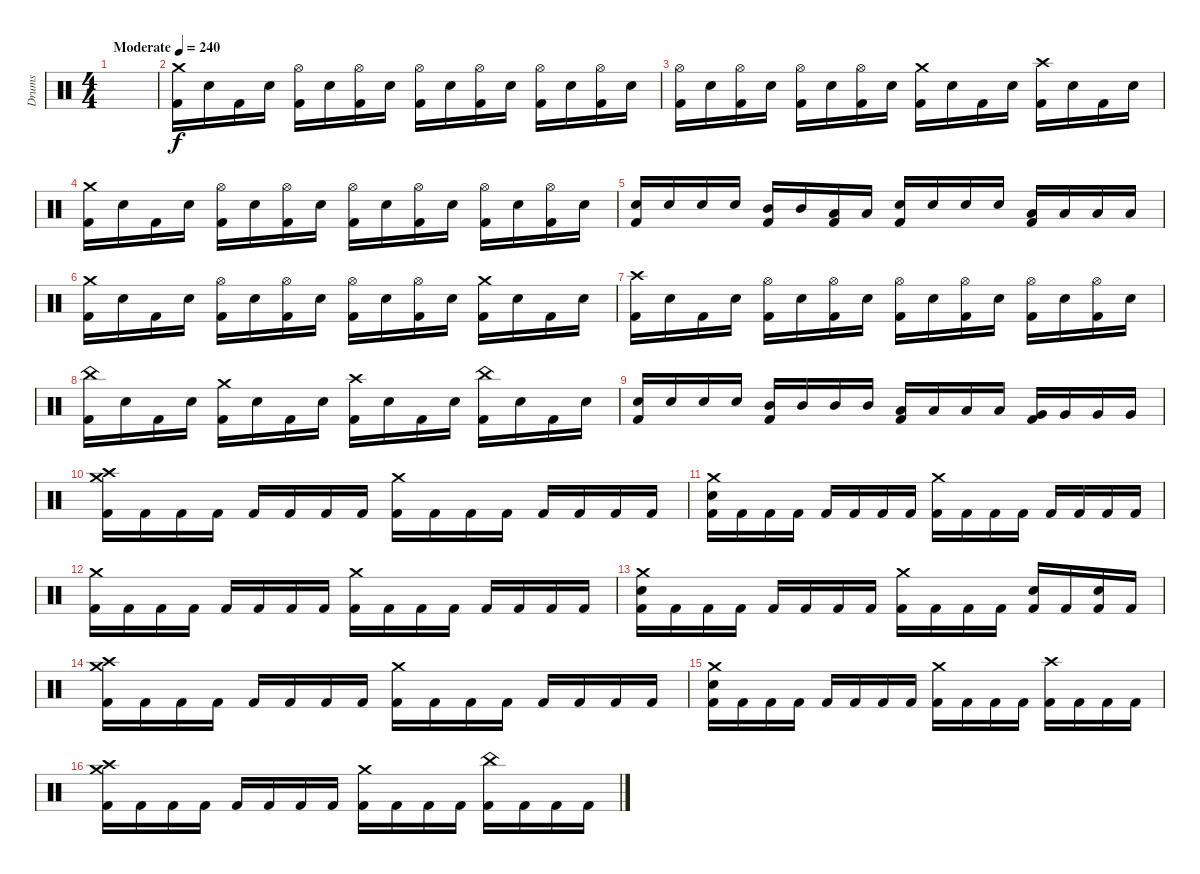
\track ("Drums" "Drums") {instrument percussion}
\staff {score}
\articulation defaults
\ts (4 4)
\tempo (240 "Moderate")
\clef neutral
\ks c
|
("Crash medium (hit)" "Kick (hit) 2").16 "Electric Snare (hit)".16 "Kick (hit) 2".16 "Electric Snare (hit)".16 ("Hi-Hat (open)" "Kick (hit) 2").16 "Electric Snare (hit)".16 ("Hi-Hat (open)" "Kick (hit) 2").16 "Electric Snare (hit)".16 ("Hi-Hat (open)" "Kick (hit) 2").16 "Electric Snare (hit)".16 ("Hi-Hat (open)" "Kick (hit) 2").16 "Electric Snare (hit)".16 ("Hi-Hat (open)" "Kick (hit) 2").16 "Electric Snare (hit)".16 ("Hi-Hat (open)" "Kick (hit) 2").16 "Electric Snare (hit)".16 |
("Hi-Hat (open)" "Kick (hit) 2").16 "Electric Snare (hit)".16 ("Hi-Hat (open)" "Kick (hit) 2").16 "Electric Snare (hit)".16 ("Hi-Hat (open)" "Kick (hit) 2").16 "Electric Snare (hit)".16 ("Hi-Hat (open)" "Kick (hit) 2").16 "Electric Snare (hit)".16 ("Crash medium (hit)" "Kick (hit) 2").16 "Electric Snare (hit)".16 "Kick (hit) 2".16 "Electric Snare (hit)".16 ("Crash high (hit)" "Kick (hit) 2").16 "Electric Snare (hit)".16 "Kick (hit) 2".16 "Electric Snare (hit)".16 |
("Crash medium (hit)" "Kick (hit) 2").16 "Electric Snare (hit)".16 "Kick (hit) 2".16 "Electric Snare (hit)".16 ("Hi-Hat (open)" "Kick (hit) 2").16 "Electric Snare (hit)".16 ("Hi-Hat (open)" "Kick (hit) 2").16 "Electric Snare (hit)".16 ("Hi-Hat (open)" "Kick (hit) 2").16 "Electric Snare (hit)".16 ("Hi-Hat (open)" "Kick (hit) 2").16 "Electric Snare (hit)".16 ("Hi-Hat (open)" "Kick (hit) 2").16 "Electric Snare (hit)".16 ("Hi-Hat (open)" "Kick (hit) 2").16 "Electric Snare (hit)".16 |
("Electric Snare (hit)" "Kick (hit) 2").16 "Electric Snare (hit)".16 "Electric Snare (hit)".16 "Electric Snare (hit)".16 ("Mid Tom (hit)" "Kick (hit) 2").16 "Mid Tom (hit)".16 ("Low Tom (hit)" "Kick (hit) 2").16 "Low Tom (hit)".16 ("Electric Snare (hit)" "Kick (hit) 2").16 "Electric Snare (hit)".16 "Electric Snare (hit)".16 "Electric Snare (hit)".16 ("Low Tom (hit)" "Kick (hit) 2").16 "Low Tom (hit)".16 "Low Tom (hit)".16 "Low Tom (hit)".16 |
("Crash medium (hit)" "Kick (hit) 2").16 "Electric Snare (hit)".16 "Kick (hit) 2".16 "Electric Snare (hit)".16 ("Hi-Hat (open)" "Kick (hit) 2").16 "Electric Snare (hit)".16 ("Hi-Hat (open)" "Kick (hit) 2").16 "Electric Snare (hit)".16 ("Hi-Hat (open)" "Kick (hit) 2").16 "Electric Snare (hit)".16 ("Hi-Hat (open)" "Kick (hit) 2").16 "Electric Snare (hit)".16 ("Crash medium (hit)" "Kick (hit) 2").16 "Electric Snare (hit)".16 "Kick (hit) 2".16 "Electric Snare (hit)".16 |
("Crash high (hit)" "Kick (hit) 2").16 "Electric Snare (hit)".16 "Kick (hit) 2".16 "Electric Snare (hit)".16 ("Hi-Hat (open)" "Kick (hit) 2").16 "Electric Snare (hit)".16 ("Hi-Hat (open)" "Kick (hit) 2").16 "Electric Snare (hit)".16 ("Hi-Hat (open)" "Kick (hit) 2").16 "Electric Snare (hit)".16 ("Hi-Hat (open)" "Kick (hit) 2").16 "Electric Snare (hit)".16 ("Hi-Hat (open)" "Kick (hit) 2").16 "Electric Snare (hit)".16 ("Hi-Hat (open)" "Kick (hit) 2").16 "Electric Snare (hit)".16 |
("China (hit)" "Kick (hit) 2").16 "Electric Snare (hit)".16 "Kick (hit) 2".16 "Electric Snare (hit)".16 ("Crash medium (hit)" "Kick (hit) 2").16 "Electric Snare (hit)".16 "Kick (hit) 2".16 "Electric Snare (hit)".16 ("Crash high (hit)" "Kick (hit) 2").16 "Electric Snare (hit)".16 "Kick (hit) 2".16 "Electric Snare (hit)".16 ("China (hit)" "Kick (hit) 2").16 "Electric Snare (hit)".16 "Kick (hit) 2".16 "Electric Snare (hit)".16 |
("Electric Snare (hit)" "Kick (hit) 2").16 "Electric Snare (hit)".16 "Electric Snare (hit)".16 "Electric Snare (hit)".16 ("Mid Tom (hit)" "Kick (hit) 2").16 "Mid Tom (hit)".16 "Mid Tom (hit)".16 "Mid Tom (hit)".16 ("Low Tom (hit)" "Kick (hit) 2").16 "Low Tom (hit)".16 "Low Tom (hit)".16 "Low Tom (hit)".16 ("Very Low Tom (hit)" "Kick (hit) 2").16 "Very Low Tom (hit)".16 "Very Low Tom (hit)".16 "Very Low Tom (hit)".16 |
("Crash medium (hit)" "Crash high (hit)" "Kick (hit) 2").16 "Kick (hit) 2".16 "Kick (hit) 2".16 "Kick (hit) 2".16 "Kick (hit) 2".16 "Kick (hit) 2".16 "Kick (hit) 2".16 "Kick (hit) 2".16 ("Crash medium (hit)" "Kick (hit) 2").16 "Kick (hit) 2".16 "Kick (hit) 2".16 "Kick (hit) 2".16 "Kick (hit) 2".16 "Kick (hit) 2".16 "Kick (hit) 2".16 "Kick (hit) 2".16 |
("Crash medium (hit)" "Electric Snare (hit)" "Kick (hit) 2").16 "Kick (hit) 2".16 "Kick (hit) 2".16 "Kick (hit) 2".16 "Kick (hit) 2".16 "Kick (hit) 2".16 "Kick (hit) 2".16 "Kick (hit) 2".16 ("Crash medium (hit)" "Kick (hit) 2").16 "Kick (hit) 2".16 "Kick (hit) 2".16 "Kick (hit) 2".16 "Kick (hit) 2".16 "Kick (hit) 2".16 "Kick (hit) 2".16 "Kick (hit) 2".16 |
("Crash medium (hit)" "Kick (hit) 2").16 "Kick (hit) 2".16 "Kick (hit) 2".16 "Kick (hit) 2".16 "Kick (hit) 2".16 "Kick (hit) 2".16 "Kick (hit) 2".16 "Kick (hit) 2".16 ("Crash medium (hit)" "Kick (hit) 2").16 "Kick (hit) 2".16 "Kick (hit) 2".16 "Kick (hit) 2".16 "Kick (hit) 2".16 "Kick (hit) 2".16 "Kick (hit) 2".16 "Kick (hit) 2".16 |
("Crash medium (hit)" "Electric Snare (hit)" "Kick (hit) 2").16 "Kick (hit) 2".16 "Kick (hit) 2".16 "Kick (hit) 2".16 "Kick (hit) 2".16 "Kick (hit) 2".16 "Kick (hit) 2".16 "Kick (hit) 2".16 ("Crash medium (hit)" "Kick (hit) 2").16 "Kick (hit) 2".16 "Kick (hit) 2".16 "Kick (hit) 2".16 ("Electric Snare (hit)" "Kick (hit) 2").16 "Kick (hit) 2".16 ("Electric Snare (hit)" "Kick (hit) 2").16 "Kick (hit) 2".16 |
("Crash medium (hit)" "Crash high (hit)" "Kick (hit) 2").16 "Kick (hit) 2".16 "Kick (hit) 2".16 "Kick (hit) 2".16 "Kick (hit) 2".16 "Kick (hit) 2".16 "Kick (hit) 2".16 "Kick (hit) 2".16 ("Crash medium (hit)" "Kick (hit) 2").16 "Kick (hit) 2".16 "Kick (hit) 2".16 "Kick (hit) 2".16 "Kick (hit) 2".16 "Kick (hit) 2".16 "Kick (hit) 2".16 "Kick (hit) 2".16 |
("Crash medium (hit)" "Electric Snare (hit)" "Kick (hit) 2").16 "Kick (hit) 2".16 "Kick (hit) 2".16 "Kick (hit) 2".16 "Kick (hit) 2".16 "Kick (hit) 2".16 "Kick (hit) 2".16 "Kick (hit) 2".16 ("Crash medium (hit)" "Kick (hit) 2").16 "Kick (hit) 2".16 "Kick (hit) 2".16 "Kick (hit) 2".16 ("Crash high (hit)" "Kick (hit) 2").16 "Kick (hit) 2".16 "Kick (hit) 2".16 "Kick (hit) 2".16 |
("Crash medium (hit)" "Crash high (hit)" "Kick (hit) 2").16 "Kick (hit) 2".16 "Kick (hit) 2".16 "Kick (hit) 2".16 "Kick (hit) 2".16 "Kick (hit) 2".16 "Kick (hit) 2".16 "Kick (hit) 2".16 ("Crash medium (hit)" "Kick (hit) 2").16 "Kick (hit) 2".16 "Kick (hit) 2".16 "Kick (hit) 2".16 ("China (hit)" "Kick (hit) 2").16 "Kick (hit) 2".16 "Kick (hit) 2".16 "Kick (hit) 2".16
